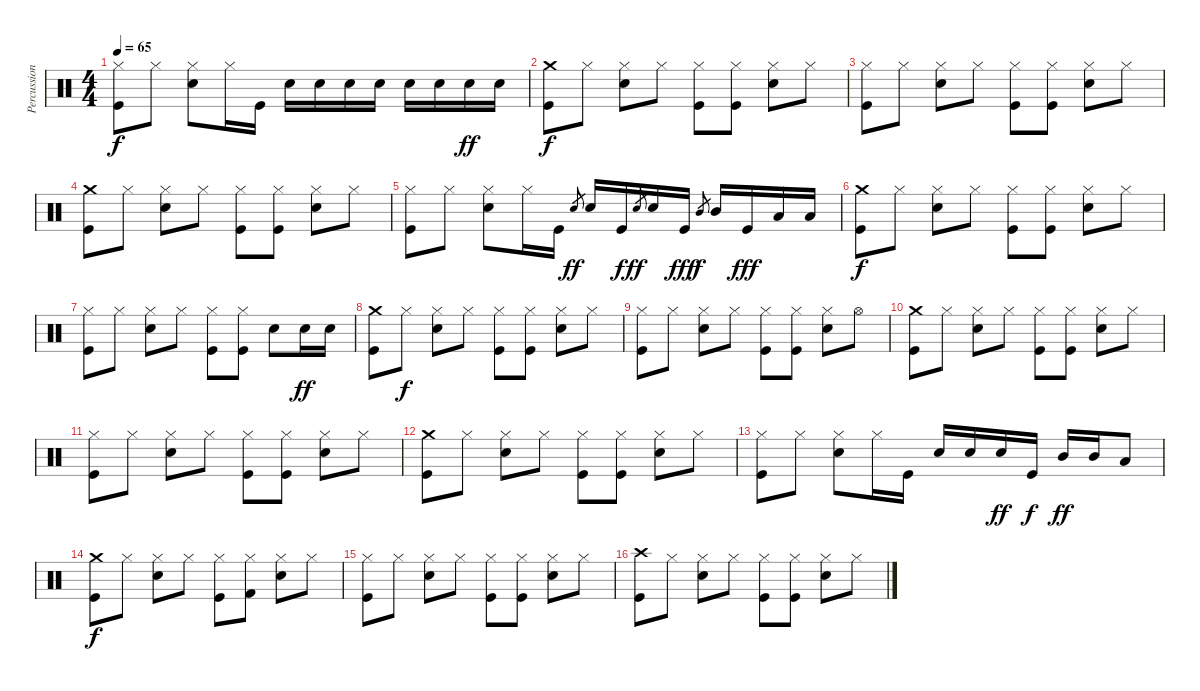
\track ("Percussion" "Percussion") {instrument percussion}
\staff {score}
\articulation defaults
\ts (4 4)
\tempo 65
\clef neutral
\ks c
("Hi-Hat (closed)" "Kick (hit)").8{dy f} "Hi-Hat (closed)".8 ("Hi-Hat (closed)" "Electric Snare (hit)").8 "Hi-Hat (closed)".16 "Kick (hit)".16 "Electric Snare (hit)".16 "Electric Snare (hit)".16 "Electric Snare (hit)".16 "Electric Snare (hit)".16 "Electric Snare (hit)".16 "Electric Snare (hit)".16 "Electric Snare (hit)".16{dy ff} "Electric Snare (hit)".16 |
("Crash medium (hit)" "Kick (hit)").8{dy f} "Hi-Hat (closed)".8 ("Hi-Hat (closed)" "Electric Snare (hit)").8 "Hi-Hat (closed)".8 ("Hi-Hat (closed)" "Kick (hit)").8 ("Hi-Hat (closed)" "Kick (hit)").8 ("Hi-Hat (closed)" "Electric Snare (hit)").8 "Hi-Hat (closed)".8 |
("Hi-Hat (closed)" "Kick (hit)").8 "Hi-Hat (closed)".8 ("Hi-Hat (closed)" "Electric Snare (hit)").8 "Hi-Hat (closed)".8 ("Hi-Hat (closed)" "Kick (hit)").8 ("Hi-Hat (closed)" "Kick (hit)").8 ("Hi-Hat (closed)" "Electric Snare (hit)").8 "Hi-Hat (closed)".8 |
("Crash medium (hit)" "Kick (hit)").8 "Hi-Hat (closed)".8 ("Hi-Hat (closed)" "Electric Snare (hit)").8 "Hi-Hat (closed)".8 ("Hi-Hat (closed)" "Kick (hit)").8 ("Hi-Hat (closed)" "Kick (hit)").8 ("Hi-Hat (closed)" "Electric Snare (hit)").8 "Hi-Hat (closed)".8 |
("Hi-Hat (closed)" "Kick (hit)").8 "Hi-Hat (closed)".8 ("Hi-Hat (closed)" "Electric Snare (hit)").8 "Hi-Hat (closed)".16 "Kick (hit)".16 "Electric Snare (hit)".8{gr dy ff} "Electric Snare (hit)".16 "Kick (hit)".16{dy f} "Electric Snare (hit)".8{gr dy ff} "Electric Snare (hit)".16 "Kick (hit)".16{dy fff} "Mid Tom (hit)".8{gr dy f} "Mid Tom (hit)".16 "Kick (hit)".16{dy fff} "Low Tom (hit)".16 "Low Tom (hit)".16 |
("Crash medium (hit)" "Kick (hit)").8{dy f} "Hi-Hat (closed)".8 ("Hi-Hat (closed)" "Electric Snare (hit)").8 "Hi-Hat (closed)".8 ("Hi-Hat (closed)" "Kick (hit)").8 ("Hi-Hat (closed)" "Kick (hit)").8 ("Hi-Hat (closed)" "Electric Snare (hit)").8 "Hi-Hat (closed)".8 |
("Hi-Hat (closed)" "Kick (hit)").8 "Hi-Hat (closed)".8 ("Hi-Hat (closed)" "Electric Snare (hit)").8 "Hi-Hat (closed)".8 ("Hi-Hat (closed)" "Kick (hit)").8 ("Hi-Hat (closed)" "Kick (hit)").8 "Electric Snare (hit)".8 "Electric Snare (hit)".16{dy ff} "Electric Snare (hit)".16 |
("Crash medium (hit)" "Kick (hit)").8 "Hi-Hat (closed)".8{dy f} ("Hi-Hat (closed)" "Electric Snare (hit)").8 "Hi-Hat (closed)".8 ("Hi-Hat (closed)" "Kick (hit)").8 ("Hi-Hat (closed)" "Kick (hit)").8 ("Hi-Hat (closed)" "Electric Snare (hit)").8 "Hi-Hat (closed)".8 |
("Hi-Hat (closed)" "Kick (hit)").8 "Hi-Hat (closed)".8 ("Hi-Hat (closed)" "Electric Snare (hit)").8 "Hi-Hat (closed)".8 ("Hi-Hat (closed)" "Kick (hit)").8 ("Hi-Hat (closed)" "Kick (hit)").8 ("Hi-Hat (closed)" "Electric Snare (hit)").8 "Hi-Hat (open)".8 |
("Crash medium (hit)" "Kick (hit)").8 "Hi-Hat (closed)".8 ("Hi-Hat (closed)" "Electric Snare (hit)").8 "Hi-Hat (closed)".8 ("Hi-Hat (closed)" "Kick (hit)").8 ("Hi-Hat (closed)" "Kick (hit)").8 ("Hi-Hat (closed)" "Electric Snare (hit)").8 "Hi-Hat (closed)".8 |
("Hi-Hat (closed)" "Kick (hit)").8 "Hi-Hat (closed)".8 ("Hi-Hat (closed)" "Electric Snare (hit)").8 "Hi-Hat (closed)".8 ("Hi-Hat (closed)" "Kick (hit)").8 ("Hi-Hat (closed)" "Kick (hit)").8 ("Hi-Hat (closed)" "Electric Snare (hit)").8 "Hi-Hat (closed)".8 |
("Crash medium (hit)" "Kick (hit)").8 "Hi-Hat (closed)".8 ("Hi-Hat (closed)" "Electric Snare (hit)").8 "Hi-Hat (closed)".8 ("Hi-Hat (closed)" "Kick (hit)").8 ("Hi-Hat (closed)" "Kick (hit)").8 ("Hi-Hat (closed)" "Electric Snare (hit)").8 "Hi-Hat (closed)".8 |
("Hi-Hat (closed)" "Kick (hit)").8 "Hi-Hat (closed)".8 ("Hi-Hat (closed)" "Electric Snare (hit)").8 "Hi-Hat (closed)".16 "Kick (hit)".16 "Electric Snare (hit)".16 "Electric Snare (hit)".16 "Electric Snare (hit)".16{dy ff} "Kick (hit)".16{dy f} "Mid Tom (hit)".16{dy ff} "Mid Tom (hit)".16 "Low Tom (hit)".8 |
("Crash medium (hit)" "Kick (hit)").8{dy f} "Hi-Hat (closed)".8 ("Hi-Hat (closed)" "Electric Snare (hit)").8 "Hi-Hat (closed)".8 ("Hi-Hat (closed)" "Kick (hit)").8 ("Hi-Hat (closed)" "Kick (hit) 2").8 ("Hi-Hat (closed)" "Electric Snare (hit)").8 "Hi-Hat (closed)".8 |
("Hi-Hat (closed)" "Kick (hit)").8 "Hi-Hat (closed)".8 ("Hi-Hat (closed)" "Electric Snare (hit)").8 "Hi-Hat (closed)".8 ("Hi-Hat (closed)" "Kick (hit)").8 ("Hi-Hat (closed)" "Kick (hit)").8 ("Hi-Hat (closed)" "Electric Snare (hit)").8 "Hi-Hat (closed)".8 |
("Crash high (hit)" "Kick (hit)").8 "Hi-Hat (closed)".8 ("Hi-Hat (closed)" "Electric Snare (hit)").8 "Hi-Hat (closed)".8 ("Hi-Hat (closed)" "Kick (hit)").8 ("Hi-Hat (closed)" "Kick (hit)").8 ("Hi-Hat (closed)" "Electric Snare (hit)").8 "Hi-Hat (closed)".8
